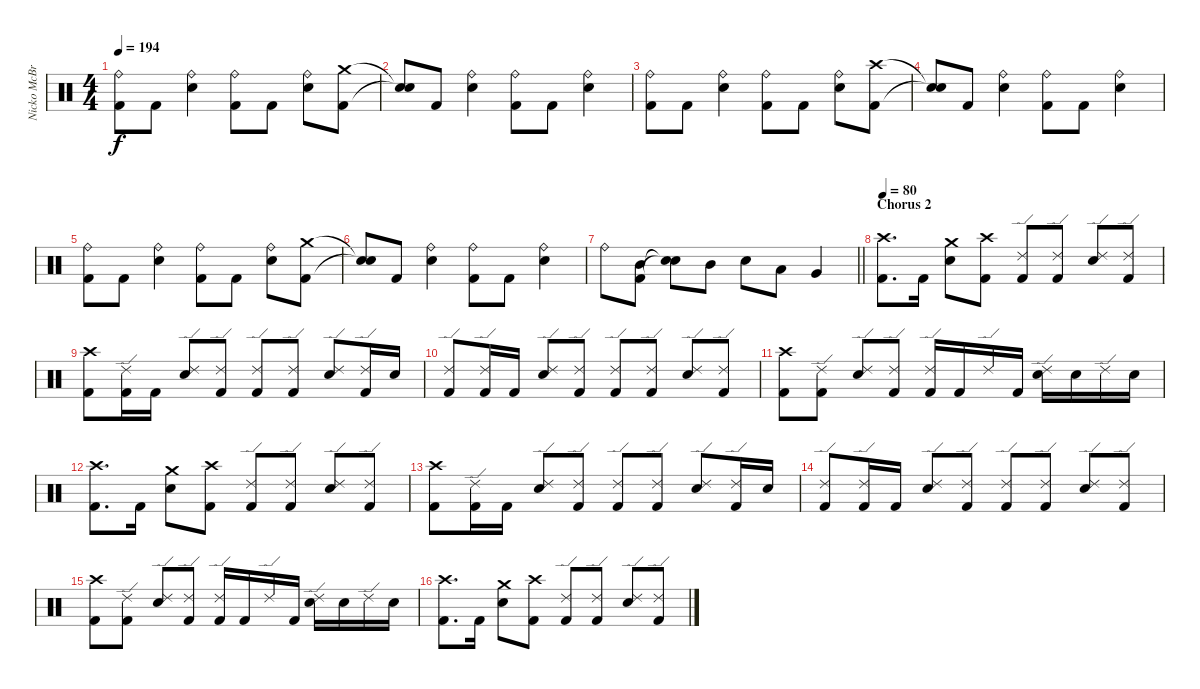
\track ("Nicko McBrain" "Nicko McBr") {instrument percussion}
\staff {score}
\articulation defaults
\ts (4 4)
\tempo 194
\clef neutral
\ks c
("Ride (bell)" "Kick (hit) 2").8{dy f} "Kick (hit) 2".8 ("Ride (bell)" "Electric Snare (hit)").4 ("Ride (bell)" "Kick (hit) 2").8 "Kick (hit) 2".8 ("Ride (bell)" "Electric Snare (hit)").8 ("Crash medium (hit)" "Kick (hit) 2").8 |
("Snare (hit)"{t} "Snare (hit)"{t}).8 "Kick (hit) 2".8 ("Ride (bell)" "Electric Snare (hit)").4 ("Ride (bell)" "Kick (hit) 2").8 "Kick (hit) 2".8 ("Ride (bell)" "Electric Snare (hit)").4 |
("Ride (bell)" "Kick (hit) 2").8 "Kick (hit) 2".8 ("Ride (bell)" "Electric Snare (hit)").4 ("Ride (bell)" "Kick (hit) 2").8 "Kick (hit) 2".8 ("Ride (bell)" "Electric Snare (hit)").8 ("Crash high (hit)" "Kick (hit) 2").8 |
("Snare (hit)"{t} "Snare (hit)"{t}).8 "Kick (hit) 2".8 ("Ride (bell)" "Electric Snare (hit)").4 ("Ride (bell)" "Kick (hit) 2").8 "Kick (hit) 2".8 ("Ride (bell)" "Electric Snare (hit)").4 |
("Ride (bell)" "Kick (hit) 2").8 "Kick (hit) 2".8 ("Ride (bell)" "Electric Snare (hit)").4 ("Ride (bell)" "Kick (hit) 2").8 "Kick (hit) 2".8 ("Ride (bell)" "Electric Snare (hit)").8 ("Crash medium (hit)" "Kick (hit) 2").8 |
("Snare (hit)"{t} "Snare (hit)"{t}).8 "Kick (hit) 2".8 ("Ride (bell)" "Electric Snare (hit)").4 ("Ride (bell)" "Kick (hit) 2").8 "Kick (hit) 2".8 ("Ride (bell)" "Electric Snare (hit)").4 |
\barLineRight lightlight "Ride (bell)".8
("Mid Tom (hit)" "Kick (hit) 2").8 ("Snare (hit)"{t} "Snare (hit)"{t}).8 "Mid Tom (hit)".8 "Electric Snare (hit)".8 "Low Tom (hit)".8 "Very Low Tom (hit)".4 |
\section ("" "Chorus 2")
\tempo 80
("Crash high (hit)" "Kick (hit) 2").8{d} "Kick (hit) 2".16 ("Crash medium (hit)" "Electric Snare (hit)").8 ("Crash high (hit)" "Kick (hit) 2").8 ("Ride (edge) 2" "Kick (hit) 2").8 ("Ride (edge) 2" "Kick (hit) 2").8 ("Ride (edge) 2" "Electric Snare (hit)").8 ("Ride (edge) 2" "Kick (hit) 2").8 |
("Crash high (hit)" "Kick (hit) 2").8 ("Ride (edge) 2" "Kick (hit) 2").16 "Kick (hit) 2".16 ("Ride (edge) 2" "Electric Snare (hit)").8 ("Ride (edge) 2" "Kick (hit) 2").8 ("Ride (edge) 2" "Kick (hit) 2").8 ("Ride (edge) 2" "Kick (hit) 2").8 ("Ride (edge) 2" "Electric Snare (hit)").8 ("Ride (edge) 2" "Kick (hit) 2").16 "Electric Snare (hit)".16 |
("Ride (edge) 2" "Kick (hit) 2").8 ("Ride (edge) 2" "Kick (hit) 2").16 "Kick (hit) 2".16 ("Ride (edge) 2" "Electric Snare (hit)").8 ("Ride (edge) 2" "Kick (hit) 2").8 ("Ride (edge) 2" "Kick (hit) 2").8 ("Ride (edge) 2" "Kick (hit) 2").8 ("Ride (edge) 2" "Electric Snare (hit)").8 ("Ride (edge) 2" "Kick (hit) 2").8 |
("Crash high (hit)" "Kick (hit) 2").8 ("Ride (edge) 2" "Kick (hit) 2").8 ("Ride (edge) 2" "Electric Snare (hit)").8 ("Ride (edge) 2" "Kick (hit) 2").8 ("Ride (edge) 2" "Kick (hit) 2").16 "Kick (hit) 2".16 "Ride (edge) 2".16 "Kick (hit) 2".16 ("Ride (edge) 2" "Electric Snare (hit)").16 "Electric Snare (hit)".16 "Ride (edge) 2".16 "Electric Snare (hit)".16 |
("Crash high (hit)" "Kick (hit) 2").8{d} "Kick (hit) 2".16 ("Crash medium (hit)" "Electric Snare (hit)").8 ("Crash high (hit)" "Kick (hit) 2").8 ("Ride (edge) 2" "Kick (hit) 2").8 ("Ride (edge) 2" "Kick (hit) 2").8 ("Ride (edge) 2" "Electric Snare (hit)").8 ("Ride (edge) 2" "Kick (hit) 2").8 |
("Crash high (hit)" "Kick (hit) 2").8 ("Ride (edge) 2" "Kick (hit) 2").16 "Kick (hit) 2".16 ("Ride (edge) 2" "Electric Snare (hit)").8 ("Ride (edge) 2" "Kick (hit) 2").8 ("Ride (edge) 2" "Kick (hit) 2").8 ("Ride (edge) 2" "Kick (hit) 2").8 ("Ride (edge) 2" "Electric Snare (hit)").8 ("Ride (edge) 2" "Kick (hit) 2").16 "Electric Snare (hit)".16 |
("Ride (edge) 2" "Kick (hit) 2").8 ("Ride (edge) 2" "Kick (hit) 2").16 "Kick (hit) 2".16 ("Ride (edge) 2" "Electric Snare (hit)").8 ("Ride (edge) 2" "Kick (hit) 2").8 ("Ride (edge) 2" "Kick (hit) 2").8 ("Ride (edge) 2" "Kick (hit) 2").8 ("Ride (edge) 2" "Electric Snare (hit)").8 ("Ride (edge) 2" "Kick (hit) 2").8 |
("Crash high (hit)" "Kick (hit) 2").8 ("Ride (edge) 2" "Kick (hit) 2").8 ("Ride (edge) 2" "Electric Snare (hit)").8 ("Ride (edge) 2" "Kick (hit) 2").8 ("Ride (edge) 2" "Kick (hit) 2").16 "Kick (hit) 2".16 "Ride (edge) 2".16 "Kick (hit) 2".16 ("Ride (edge) 2" "Electric Snare (hit)").16 "Electric Snare (hit)".16 "Ride (edge) 2".16 "Electric Snare (hit)".16 |
("Crash high (hit)" "Kick (hit) 2").8{d} "Kick (hit) 2".16 ("Crash medium (hit)" "Electric Snare (hit)").8 ("Crash high (hit)" "Kick (hit) 2").8 ("Ride (edge) 2" "Kick (hit) 2").8 ("Ride (edge) 2" "Kick (hit) 2").8 ("Ride (edge) 2" "Electric Snare (hit)").8 ("Ride (edge) 2" "Kick (hit) 2").8
